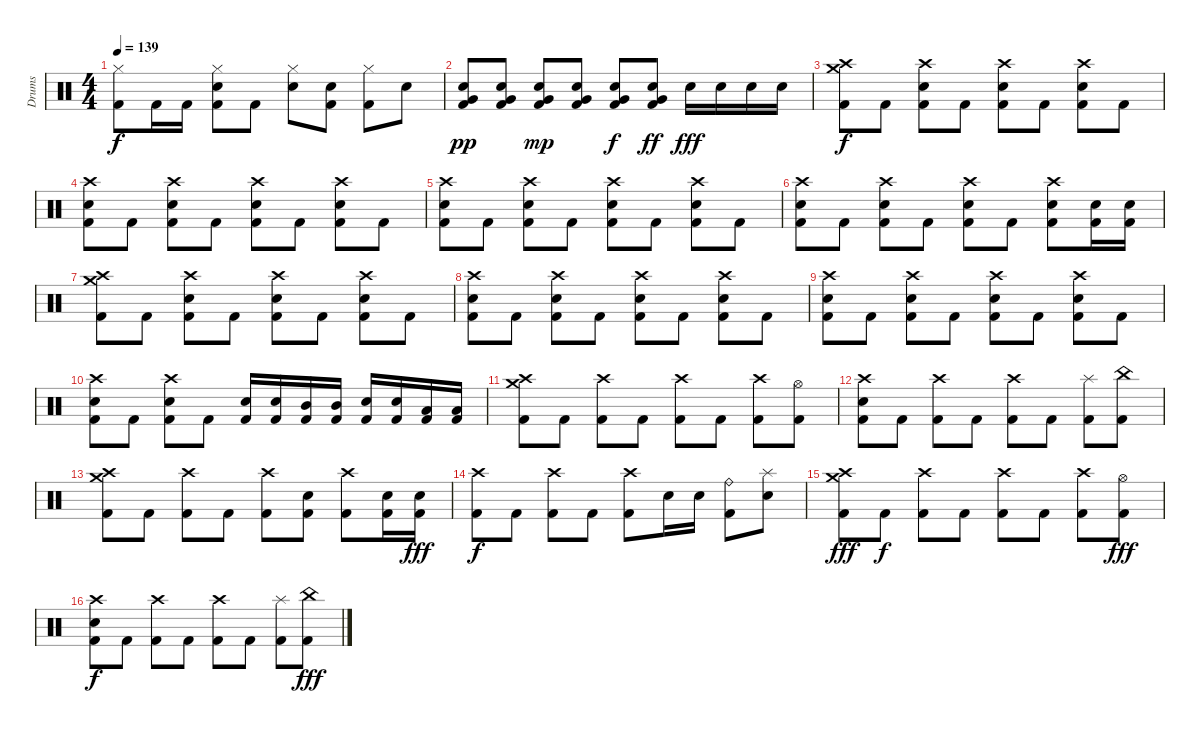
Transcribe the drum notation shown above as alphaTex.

\track ("Drums" "Drums") {solo instrument percussion}
\staff {score}
\articulation defaults
\ts (4 4)
\tempo 139
\clef neutral
\ks c
("Hi-Hat (closed)" "Kick (hit) 2").8{dy f} "Kick (hit) 2".16 "Kick (hit) 2".16 ("Hi-Hat (closed)" "Electric Snare (hit)" "Kick (hit) 2").8 "Kick (hit) 2".8 ("Hi-Hat (closed)" "Electric Snare (hit)").8 ("Electric Snare (hit)" "Kick (hit) 2").8 ("Hi-Hat (closed)" "Kick (hit) 2").8 "Electric Snare (hit)".8 |
("Very Low Tom (hit)" "Electric Snare (hit)" "Kick (hit) 2").8{dy pp} ("Very Low Tom (hit)" "Electric Snare (hit)" "Kick (hit) 2").8 ("Very Low Tom (hit)" "Electric Snare (hit)" "Kick (hit) 2").8{dy mp} ("Very Low Tom (hit)" "Electric Snare (hit)" "Kick (hit) 2").8 ("Very Low Tom (hit)" "Electric Snare (hit)" "Kick (hit) 2").8{dy f} ("Very Low Tom (hit)" "Electric Snare (hit)" "Kick (hit) 2").8{dy ff} "Electric Snare (hit)".16{dy fff} "Electric Snare (hit)".16 "Electric Snare (hit)".16 "Electric Snare (hit)".16 |
("Crash high (hit)" "Crash medium (hit)" "Kick (hit) 2").8{dy f} "Kick (hit) 2".8 ("Crash high (hit)" "Electric Snare (hit)" "Kick (hit) 2").8 "Kick (hit) 2".8 ("Crash high (hit)" "Electric Snare (hit)" "Kick (hit) 2").8 "Kick (hit) 2".8 ("Crash high (hit)" "Electric Snare (hit)" "Kick (hit) 2").8 "Kick (hit) 2".8 |
("Crash high (hit)" "Electric Snare (hit)" "Kick (hit) 2").8 "Kick (hit) 2".8 ("Crash high (hit)" "Electric Snare (hit)" "Kick (hit) 2").8 "Kick (hit) 2".8 ("Crash high (hit)" "Electric Snare (hit)" "Kick (hit) 2").8 "Kick (hit) 2".8 ("Crash high (hit)" "Electric Snare (hit)" "Kick (hit) 2").8 "Kick (hit) 2".8 |
("Crash high (hit)" "Electric Snare (hit)" "Kick (hit) 2").8 "Kick (hit) 2".8 ("Crash high (hit)" "Electric Snare (hit)" "Kick (hit) 2").8 "Kick (hit) 2".8 ("Crash high (hit)" "Electric Snare (hit)" "Kick (hit) 2").8 "Kick (hit) 2".8 ("Crash high (hit)" "Electric Snare (hit)" "Kick (hit) 2").8 "Kick (hit) 2".8 |
("Crash high (hit)" "Electric Snare (hit)" "Kick (hit) 2").8 "Kick (hit) 2".8 ("Crash high (hit)" "Electric Snare (hit)" "Kick (hit) 2").8 "Kick (hit) 2".8 ("Crash high (hit)" "Electric Snare (hit)" "Kick (hit) 2").8 "Kick (hit) 2".8 ("Crash high (hit)" "Electric Snare (hit)" "Kick (hit) 2").8 ("Electric Snare (hit)" "Kick (hit) 2").16 ("Electric Snare (hit)" "Kick (hit) 2").16 |
("Crash high (hit)" "Crash medium (hit)" "Kick (hit) 2").8 "Kick (hit) 2".8 ("Crash high (hit)" "Electric Snare (hit)" "Kick (hit) 2").8 "Kick (hit) 2".8 ("Crash high (hit)" "Electric Snare (hit)" "Kick (hit) 2").8 "Kick (hit) 2".8 ("Crash high (hit)" "Electric Snare (hit)" "Kick (hit) 2").8 "Kick (hit) 2".8 |
("Crash high (hit)" "Electric Snare (hit)" "Kick (hit) 2").8 "Kick (hit) 2".8 ("Crash high (hit)" "Electric Snare (hit)" "Kick (hit) 2").8 "Kick (hit) 2".8 ("Crash high (hit)" "Electric Snare (hit)" "Kick (hit) 2").8 "Kick (hit) 2".8 ("Crash high (hit)" "Electric Snare (hit)" "Kick (hit) 2").8 "Kick (hit) 2".8 |
("Crash high (hit)" "Electric Snare (hit)" "Kick (hit) 2").8 "Kick (hit) 2".8 ("Crash high (hit)" "Electric Snare (hit)" "Kick (hit) 2").8 "Kick (hit) 2".8 ("Crash high (hit)" "Electric Snare (hit)" "Kick (hit) 2").8 "Kick (hit) 2".8 ("Crash high (hit)" "Electric Snare (hit)" "Kick (hit) 2").8 "Kick (hit) 2".8 |
("Crash high (hit)" "Electric Snare (hit)" "Kick (hit) 2").8 "Kick (hit) 2".8 ("Crash high (hit)" "Electric Snare (hit)" "Kick (hit) 2").8 "Kick (hit) 2".8 ("Electric Snare (hit)" "Kick (hit) 2").16 ("Electric Snare (hit)" "Kick (hit) 2").16 ("Mid Tom (hit)" "Kick (hit) 2").16 ("Mid Tom (hit)" "Kick (hit) 2").16 ("Electric Snare (hit)" "Kick (hit) 2").16 ("Electric Snare (hit)" "Kick (hit) 2").16 ("Low Tom (hit)" "Kick (hit) 2").16 ("Low Tom (hit)" "Kick (hit) 2").16 |
("Crash high (hit)" "Crash medium (hit)" "Kick (hit) 2").8 "Kick (hit) 2".8 ("Crash high (hit)" "Kick (hit) 2").8 "Kick (hit) 2".8 ("Crash high (hit)" "Kick (hit) 2").8 "Kick (hit) 2".8 ("Crash high (hit)" "Kick (hit) 2").8 ("Hi-Hat (open)" "Kick (hit) 2").8 |
("Crash high (hit)" "Electric Snare (hit)" "Kick (hit) 2").8 "Kick (hit) 2".8 ("Crash high (hit)" "Kick (hit) 2").8 "Kick (hit) 2".8 ("Crash high (hit)" "Kick (hit) 2").8 "Kick (hit) 2".8 ("Splash (hit)" "Kick (hit) 2").8 ("China (hit)" "Kick (hit) 2").8 |
("Crash high (hit)" "Crash medium (hit)" "Kick (hit) 2").8 "Kick (hit) 2".8 ("Crash high (hit)" "Kick (hit) 2").8 "Kick (hit) 2".8 ("Crash high (hit)" "Kick (hit) 2").8 ("Electric Snare (hit)" "Kick (hit) 2").8 ("Crash high (hit)" "Kick (hit) 2").8 ("Electric Snare (hit)" "Kick (hit) 2").16 ("Electric Snare (hit)" "Kick (hit) 2").16{dy fff} |
("Crash high (hit)" "Kick (hit) 2").8{dy f} "Kick (hit) 2".8 ("Crash high (hit)" "Kick (hit) 2").8 "Kick (hit) 2".8 ("Crash high (hit)" "Kick (hit) 2").8 "Electric Snare (hit)".16 "Electric Snare (hit)".16 ("Ride (bell)" "Kick (hit) 2").8 ("Splash (hit)" "Electric Snare (hit)").8 |
("Crash high (hit)" "Crash medium (hit)" "Kick (hit) 2").8{dy fff} "Kick (hit) 2".8{dy f} ("Crash high (hit)" "Kick (hit) 2").8 "Kick (hit) 2".8 ("Crash high (hit)" "Kick (hit) 2").8 "Kick (hit) 2".8 ("Crash high (hit)" "Kick (hit) 2").8 ("Hi-Hat (open)" "Kick (hit) 2").8{dy fff} |
("Crash high (hit)" "Electric Snare (hit)" "Kick (hit) 2").8{dy f} "Kick (hit) 2".8 ("Crash high (hit)" "Kick (hit) 2").8 "Kick (hit) 2".8 ("Crash high (hit)" "Kick (hit) 2").8 "Kick (hit) 2".8 ("Splash (hit)" "Kick (hit) 2").8 ("China (hit)" "Kick (hit) 2").8{dy fff}
